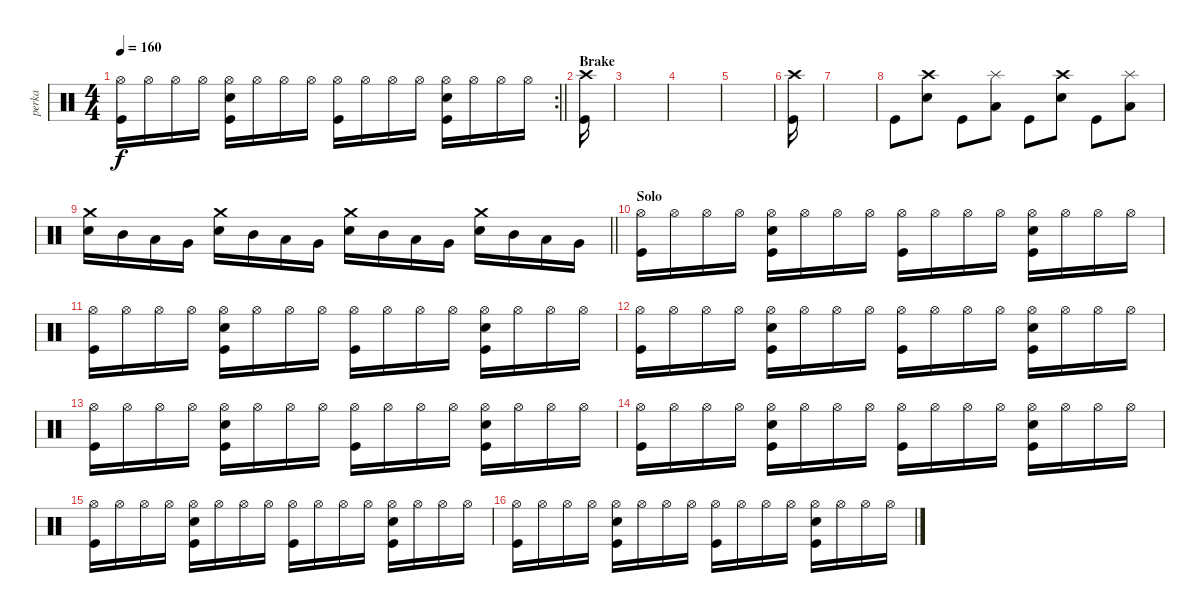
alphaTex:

\track ("perka" "perka") {instrument percussion}
\staff {score}
\articulation defaults
\rc 2
\ts (4 4)
\tempo 160
\clef neutral
\barLineRight lightlight
\ks c
("Hi-Hat (open)" "Kick (hit)").16{dy f} "Hi-Hat (open)".16 "Hi-Hat (open)".16 "Hi-Hat (open)".16 ("Hi-Hat (open)" "Snare (hit) 2" "Kick (hit)").16 "Hi-Hat (open)".16 "Hi-Hat (open)".16 "Hi-Hat (open)".16 ("Hi-Hat (open)" "Kick (hit)").16 "Hi-Hat (open)".16 "Hi-Hat (open)".16 "Hi-Hat (open)".16 ("Hi-Hat (open)" "Snare (hit) 2" "Kick (hit)").16 "Hi-Hat (open)".16 "Hi-Hat (open)".16 "Hi-Hat (open)".16 |
\section ("" "Brake")
("Kick (hit)" "Crash high (hit)").16 |
|
|
|
("Kick (hit)" "Crash high (hit)").16 |
|
"Kick (hit)".8 ("Crash high (hit)" "Snare (hit) 2").8 "Kick (hit)".8 ("Splash (hit)" "Low Tom (hit)").8 "Kick (hit)".8 ("Crash high (hit)" "Snare (hit) 2").8 "Kick (hit)".8 ("Splash (hit)" "Low Tom (hit)").8 |
\barLineRight lightlight
("Crash medium (hit)" "Snare (hit) 2").16 "Mid Tom (hit)".16 "Low Tom (hit)".16 "Very Low Tom (hit)".16 ("Crash medium (hit)" "Snare (hit) 2").16 "Mid Tom (hit)".16 "Low Tom (hit)".16 "Very Low Tom (hit)".16 ("Crash medium (hit)" "Snare (hit) 2").16 "Mid Tom (hit)".16 "Low Tom (hit)".16 "Very Low Tom (hit)".16 ("Crash medium (hit)" "Snare (hit) 2").16 "Mid Tom (hit)".16 "Low Tom (hit)".16 "Very Low Tom (hit)".16 |
\section ("" "Solo")
("Hi-Hat (open)" "Kick (hit)").16 "Hi-Hat (open)".16 "Hi-Hat (open)".16 "Hi-Hat (open)".16 ("Hi-Hat (open)" "Snare (hit) 2" "Kick (hit)").16 "Hi-Hat (open)".16 "Hi-Hat (open)".16 "Hi-Hat (open)".16 ("Hi-Hat (open)" "Kick (hit)").16 "Hi-Hat (open)".16 "Hi-Hat (open)".16 "Hi-Hat (open)".16 ("Hi-Hat (open)" "Snare (hit) 2" "Kick (hit)").16 "Hi-Hat (open)".16 "Hi-Hat (open)".16 "Hi-Hat (open)".16 |
("Hi-Hat (open)" "Kick (hit)").16 "Hi-Hat (open)".16 "Hi-Hat (open)".16 "Hi-Hat (open)".16 ("Hi-Hat (open)" "Snare (hit) 2" "Kick (hit)").16 "Hi-Hat (open)".16 "Hi-Hat (open)".16 "Hi-Hat (open)".16 ("Hi-Hat (open)" "Kick (hit)").16 "Hi-Hat (open)".16 "Hi-Hat (open)".16 "Hi-Hat (open)".16 ("Hi-Hat (open)" "Snare (hit) 2" "Kick (hit)").16 "Hi-Hat (open)".16 "Hi-Hat (open)".16 "Hi-Hat (open)".16 |
("Hi-Hat (open)" "Kick (hit)").16 "Hi-Hat (open)".16 "Hi-Hat (open)".16 "Hi-Hat (open)".16 ("Hi-Hat (open)" "Snare (hit) 2" "Kick (hit)").16 "Hi-Hat (open)".16 "Hi-Hat (open)".16 "Hi-Hat (open)".16 ("Hi-Hat (open)" "Kick (hit)").16 "Hi-Hat (open)".16 "Hi-Hat (open)".16 "Hi-Hat (open)".16 ("Hi-Hat (open)" "Snare (hit) 2" "Kick (hit)").16 "Hi-Hat (open)".16 "Hi-Hat (open)".16 "Hi-Hat (open)".16 |
("Hi-Hat (open)" "Kick (hit)").16 "Hi-Hat (open)".16 "Hi-Hat (open)".16 "Hi-Hat (open)".16 ("Hi-Hat (open)" "Snare (hit) 2" "Kick (hit)").16 "Hi-Hat (open)".16 "Hi-Hat (open)".16 "Hi-Hat (open)".16 ("Hi-Hat (open)" "Kick (hit)").16 "Hi-Hat (open)".16 "Hi-Hat (open)".16 "Hi-Hat (open)".16 ("Hi-Hat (open)" "Snare (hit) 2" "Kick (hit)").16 "Hi-Hat (open)".16 "Hi-Hat (open)".16 "Hi-Hat (open)".16 |
("Hi-Hat (open)" "Kick (hit)").16 "Hi-Hat (open)".16 "Hi-Hat (open)".16 "Hi-Hat (open)".16 ("Hi-Hat (open)" "Snare (hit) 2" "Kick (hit)").16 "Hi-Hat (open)".16 "Hi-Hat (open)".16 "Hi-Hat (open)".16 ("Hi-Hat (open)" "Kick (hit)").16 "Hi-Hat (open)".16 "Hi-Hat (open)".16 "Hi-Hat (open)".16 ("Hi-Hat (open)" "Snare (hit) 2" "Kick (hit)").16 "Hi-Hat (open)".16 "Hi-Hat (open)".16 "Hi-Hat (open)".16 |
("Hi-Hat (open)" "Kick (hit)").16 "Hi-Hat (open)".16 "Hi-Hat (open)".16 "Hi-Hat (open)".16 ("Hi-Hat (open)" "Snare (hit) 2" "Kick (hit)").16 "Hi-Hat (open)".16 "Hi-Hat (open)".16 "Hi-Hat (open)".16 ("Hi-Hat (open)" "Kick (hit)").16 "Hi-Hat (open)".16 "Hi-Hat (open)".16 "Hi-Hat (open)".16 ("Hi-Hat (open)" "Snare (hit) 2" "Kick (hit)").16 "Hi-Hat (open)".16 "Hi-Hat (open)".16 "Hi-Hat (open)".16 |
("Hi-Hat (open)" "Kick (hit)").16 "Hi-Hat (open)".16 "Hi-Hat (open)".16 "Hi-Hat (open)".16 ("Hi-Hat (open)" "Snare (hit) 2" "Kick (hit)").16 "Hi-Hat (open)".16 "Hi-Hat (open)".16 "Hi-Hat (open)".16 ("Hi-Hat (open)" "Kick (hit)").16 "Hi-Hat (open)".16 "Hi-Hat (open)".16 "Hi-Hat (open)".16 ("Hi-Hat (open)" "Snare (hit) 2" "Kick (hit)").16 "Hi-Hat (open)".16 "Hi-Hat (open)".16 "Hi-Hat (open)".16
